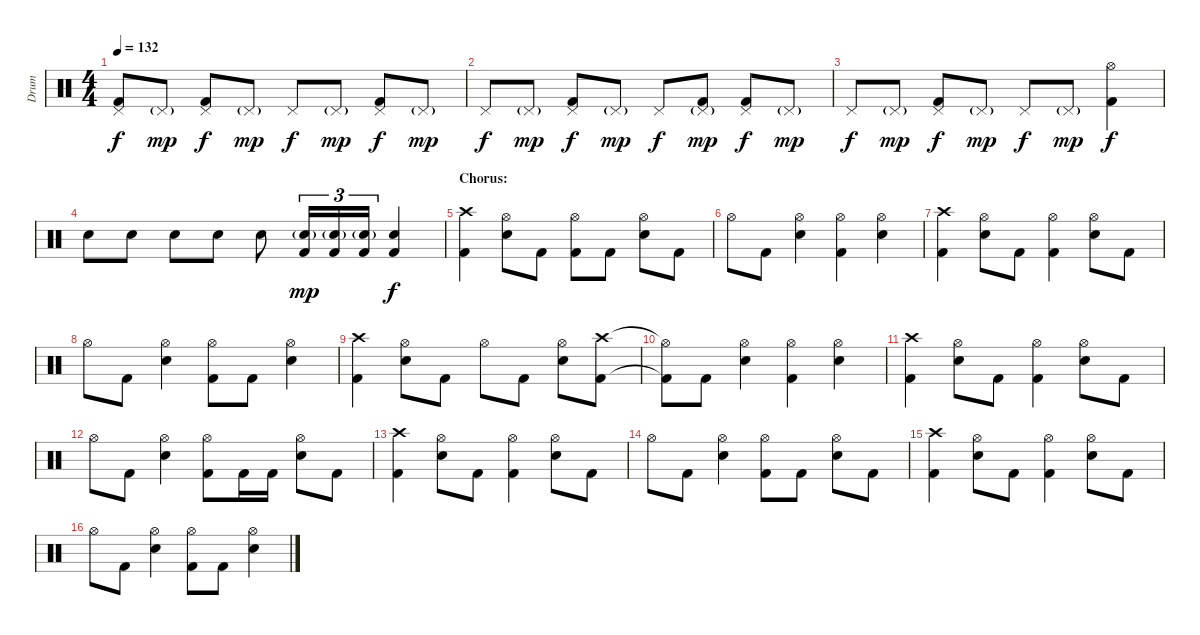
\track ("Drum" "Drum") {instrument percussion}
\staff {score}
\articulation defaults
\ts (4 4)
\tempo 132
\clef neutral
\ks c
("Pedal Hi-Hat (hit)" "Kick (hit) 2").8{dy f} "Pedal Hi-Hat (hit)"{g}.8{dy mp} ("Pedal Hi-Hat (hit)" "Kick (hit) 2").8{dy f} "Pedal Hi-Hat (hit)"{g}.8{dy mp} "Pedal Hi-Hat (hit)".8{dy f} "Pedal Hi-Hat (hit)"{g}.8{dy mp} ("Pedal Hi-Hat (hit)" "Kick (hit) 2").8{dy f} "Pedal Hi-Hat (hit)"{g}.8{dy mp} |
"Pedal Hi-Hat (hit)".8{dy f} "Pedal Hi-Hat (hit)"{g}.8{dy mp} ("Pedal Hi-Hat (hit)" "Kick (hit) 2").8{dy f} "Pedal Hi-Hat (hit)"{g}.8{dy mp} "Pedal Hi-Hat (hit)".8{dy f} ("Pedal Hi-Hat (hit)"{g} "Kick (hit) 2").8{dy mp} ("Pedal Hi-Hat (hit)" "Kick (hit) 2").8{dy f} "Pedal Hi-Hat (hit)"{g}.8{dy mp} |
"Pedal Hi-Hat (hit)".8{dy f} "Pedal Hi-Hat (hit)"{g}.8{dy mp} ("Pedal Hi-Hat (hit)" "Kick (hit) 2").8{dy f} "Pedal Hi-Hat (hit)"{g}.8{dy mp} "Pedal Hi-Hat (hit)".8{dy f} "Pedal Hi-Hat (hit)"{g}.8{dy mp} ("Hi-Hat (open)" "Kick (hit) 2").4{dy f} |
"Snare (hit) 2".8 "Snare (hit) 2".8 "Snare (hit) 2".8 "Snare (hit) 2".8 "Snare (hit) 2".8 ("Snare (hit) 2"{g} "Kick (hit) 2").16{tu (3 2) dy mp} ("Snare (hit) 2"{g} "Kick (hit) 2").16{tu (3 2)} ("Snare (hit) 2"{g} "Kick (hit) 2").16{tu (3 2)} ("Snare (hit) 2" "Kick (hit) 2").4{dy f} |
\section ("" "Chorus:")
("Crash high (hit)" "Kick (hit) 2").4 ("Hi-Hat (open)" "Snare (hit) 2").8 "Kick (hit) 2".8 ("Hi-Hat (open)" "Kick (hit) 2").8 "Kick (hit) 2".8 ("Hi-Hat (open)" "Snare (hit) 2").8 "Kick (hit) 2".8 |
"Hi-Hat (open)".8 "Kick (hit) 2".8 ("Hi-Hat (open)" "Snare (hit) 2").4 ("Hi-Hat (open)" "Kick (hit) 2").4 ("Hi-Hat (open)" "Snare (hit) 2").4 |
("Crash high (hit)" "Kick (hit) 2").4 ("Hi-Hat (open)" "Snare (hit) 2").8 "Kick (hit) 2".8 ("Hi-Hat (open)" "Kick (hit) 2").4 ("Hi-Hat (open)" "Snare (hit) 2").8 "Kick (hit) 2".8 |
"Hi-Hat (open)".8 "Kick (hit) 2".8 ("Hi-Hat (open)" "Snare (hit) 2").4 ("Hi-Hat (open)" "Kick (hit) 2").8 "Kick (hit) 2".8 ("Hi-Hat (open)" "Snare (hit) 2").4 |
("Crash high (hit)" "Kick (hit) 2").4 ("Hi-Hat (open)" "Snare (hit) 2").8 "Kick (hit) 2".8 "Hi-Hat (open)".8 "Kick (hit) 2".8 ("Hi-Hat (open)" "Snare (hit) 2").8 ("Crash high (hit)" "Kick (hit) 2").8 |
("Hi-Hat (open)"{t} "Kick (hit) 2"{t}).8 "Kick (hit) 2".8 ("Hi-Hat (open)" "Snare (hit) 2").4 ("Hi-Hat (open)" "Kick (hit) 2").4 ("Hi-Hat (open)" "Snare (hit) 2").4 |
("Crash high (hit)" "Kick (hit) 2").4 ("Hi-Hat (open)" "Snare (hit) 2").8 "Kick (hit) 2".8 ("Hi-Hat (open)" "Kick (hit) 2").4 ("Hi-Hat (open)" "Snare (hit) 2").8 "Kick (hit) 2".8 |
"Hi-Hat (open)".8 "Kick (hit) 2".8 ("Hi-Hat (open)" "Snare (hit) 2").4 ("Hi-Hat (open)" "Kick (hit) 2").8 "Kick (hit) 2".16 "Kick (hit) 2".16 ("Hi-Hat (open)" "Snare (hit) 2").8 "Kick (hit) 2".8 |
("Crash high (hit)" "Kick (hit) 2").4 ("Hi-Hat (open)" "Snare (hit) 2").8 "Kick (hit) 2".8 ("Hi-Hat (open)" "Kick (hit) 2").4 ("Hi-Hat (open)" "Snare (hit) 2").8 "Kick (hit) 2".8 |
"Hi-Hat (open)".8 "Kick (hit) 2".8 ("Hi-Hat (open)" "Snare (hit) 2").4 ("Hi-Hat (open)" "Kick (hit) 2").8 "Kick (hit) 2".8 ("Hi-Hat (open)" "Snare (hit) 2").8 "Kick (hit) 2".8 |
("Crash high (hit)" "Kick (hit) 2").4 ("Hi-Hat (open)" "Snare (hit) 2").8 "Kick (hit) 2".8 ("Hi-Hat (open)" "Kick (hit) 2").4 ("Hi-Hat (open)" "Snare (hit) 2").8 "Kick (hit) 2".8 |
"Hi-Hat (open)".8 "Kick (hit) 2".8 ("Hi-Hat (open)" "Snare (hit) 2").4 ("Hi-Hat (open)" "Kick (hit) 2").8 "Kick (hit) 2".8 ("Hi-Hat (open)" "Snare (hit) 2").4
